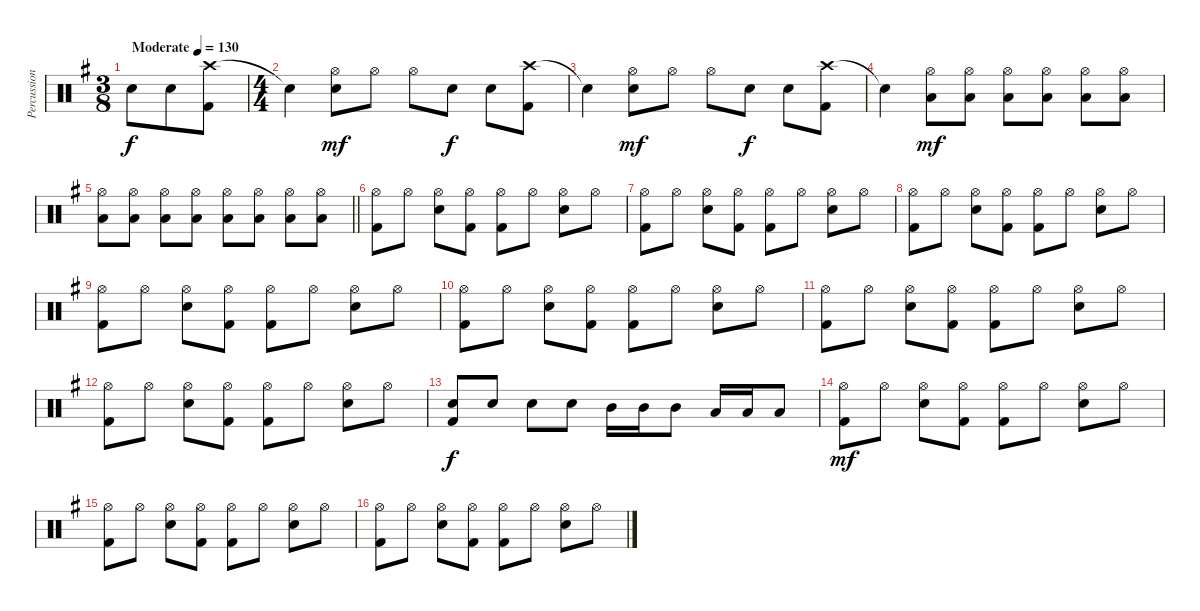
\track ("Percussion" "Percussion") {instrument percussion}
\staff {score}
\articulation defaults
\ts (3 8)
\tempo (130 "Moderate")
\clef neutral
\ks g "Snare (hit) 2".8{dy f} "Snare (hit) 2".8
("Crash high (hit)" "Kick (hit) 2").8 |
\ts (4 4)
"Snare (hit)"{t}.4 ("Hi-Hat (open)" "Snare (hit) 2").8{dy mf} "Hi-Hat (open)".8 "Hi-Hat (open)".8 "Snare (hit) 2".8{dy f} "Snare (hit) 2".8 ("Crash high (hit)" "Kick (hit) 2").8 |
"Snare (hit)"{t}.4 ("Hi-Hat (open)" "Snare (hit) 2").8{dy mf} "Hi-Hat (open)".8 "Hi-Hat (open)".8 "Snare (hit) 2".8{dy f} "Snare (hit) 2".8 ("Crash high (hit)" "Kick (hit) 2").8 |
"Snare (hit)"{t}.4 ("Hi-Hat (open)" "Low Floor Tom (hit)").8{dy mf} ("Hi-Hat (open)" "Low Floor Tom (hit)").8 ("Hi-Hat (open)" "Low Floor Tom (hit)").8 ("Hi-Hat (open)" "Low Floor Tom (hit)").8 ("Hi-Hat (open)" "Low Floor Tom (hit)").8 ("Hi-Hat (open)" "Low Floor Tom (hit)").8 |
\barLineRight lightlight
("Hi-Hat (open)" "Low Floor Tom (hit)").8 ("Hi-Hat (open)" "Low Floor Tom (hit)").8 ("Hi-Hat (open)" "Low Floor Tom (hit)").8 ("Hi-Hat (open)" "Low Floor Tom (hit)").8 ("Hi-Hat (open)" "Low Floor Tom (hit)").8 ("Hi-Hat (open)" "Low Floor Tom (hit)").8 ("Hi-Hat (open)" "Low Floor Tom (hit)").8 ("Hi-Hat (open)" "Low Floor Tom (hit)").8 |
("Hi-Hat (open)" "Kick (hit) 2").8 "Hi-Hat (open)".8 ("Hi-Hat (open)" "Snare (hit) 2").8 ("Hi-Hat (open)" "Kick (hit) 2").8 ("Hi-Hat (open)" "Kick (hit) 2").8 "Hi-Hat (open)".8 ("Hi-Hat (open)" "Snare (hit) 2").8 "Hi-Hat (open)".8 |
("Hi-Hat (open)" "Kick (hit) 2").8 "Hi-Hat (open)".8 ("Hi-Hat (open)" "Snare (hit) 2").8 ("Hi-Hat (open)" "Kick (hit) 2").8 ("Hi-Hat (open)" "Kick (hit) 2").8 "Hi-Hat (open)".8 ("Hi-Hat (open)" "Snare (hit) 2").8 "Hi-Hat (open)".8 |
("Hi-Hat (open)" "Kick (hit) 2").8 "Hi-Hat (open)".8 ("Hi-Hat (open)" "Snare (hit) 2").8 ("Hi-Hat (open)" "Kick (hit) 2").8 ("Hi-Hat (open)" "Kick (hit) 2").8 "Hi-Hat (open)".8 ("Hi-Hat (open)" "Snare (hit) 2").8 "Hi-Hat (open)".8 |
("Hi-Hat (open)" "Kick (hit) 2").8 "Hi-Hat (open)".8 ("Hi-Hat (open)" "Snare (hit) 2").8 ("Hi-Hat (open)" "Kick (hit) 2").8 ("Hi-Hat (open)" "Kick (hit) 2").8 "Hi-Hat (open)".8 ("Hi-Hat (open)" "Snare (hit) 2").8 "Hi-Hat (open)".8 |
("Hi-Hat (open)" "Kick (hit) 2").8 "Hi-Hat (open)".8 ("Hi-Hat (open)" "Snare (hit) 2").8 ("Hi-Hat (open)" "Kick (hit) 2").8 ("Hi-Hat (open)" "Kick (hit) 2").8 "Hi-Hat (open)".8 ("Hi-Hat (open)" "Snare (hit) 2").8 "Hi-Hat (open)".8 |
("Hi-Hat (open)" "Kick (hit) 2").8 "Hi-Hat (open)".8 ("Hi-Hat (open)" "Snare (hit) 2").8 ("Hi-Hat (open)" "Kick (hit) 2").8 ("Hi-Hat (open)" "Kick (hit) 2").8 "Hi-Hat (open)".8 ("Hi-Hat (open)" "Snare (hit) 2").8 "Hi-Hat (open)".8 |
("Hi-Hat (open)" "Kick (hit) 2").8 "Hi-Hat (open)".8 ("Hi-Hat (open)" "Snare (hit) 2").8 ("Hi-Hat (open)" "Kick (hit) 2").8 ("Hi-Hat (open)" "Kick (hit) 2").8 "Hi-Hat (open)".8 ("Hi-Hat (open)" "Snare (hit) 2").8 "Hi-Hat (open)".8 |
("Snare (hit) 2" "Kick (hit) 2").8{dy f} "Snare (hit) 2".8 "Snare (hit) 2".8 "Snare (hit) 2".8 "Mid Tom (hit)".16 "Mid Tom (hit)".16 "Mid Tom (hit)".8 "Low Tom (hit)".16 "Low Tom (hit)".16 "Low Tom (hit)".8 |
("Hi-Hat (open)" "Kick (hit) 2").8{dy mf} "Hi-Hat (open)".8 ("Hi-Hat (open)" "Snare (hit) 2").8 ("Hi-Hat (open)" "Kick (hit) 2").8 ("Hi-Hat (open)" "Kick (hit) 2").8 "Hi-Hat (open)".8 ("Hi-Hat (open)" "Snare (hit) 2").8 "Hi-Hat (open)".8 |
("Hi-Hat (open)" "Kick (hit) 2").8 "Hi-Hat (open)".8 ("Hi-Hat (open)" "Snare (hit) 2").8 ("Hi-Hat (open)" "Kick (hit) 2").8 ("Hi-Hat (open)" "Kick (hit) 2").8 "Hi-Hat (open)".8 ("Hi-Hat (open)" "Snare (hit) 2").8 "Hi-Hat (open)".8 |
("Hi-Hat (open)" "Kick (hit) 2").8 "Hi-Hat (open)".8 ("Hi-Hat (open)" "Snare (hit) 2").8 ("Hi-Hat (open)" "Kick (hit) 2").8 ("Hi-Hat (open)" "Kick (hit) 2").8 "Hi-Hat (open)".8 ("Hi-Hat (open)" "Snare (hit) 2").8 "Hi-Hat (open)".8
